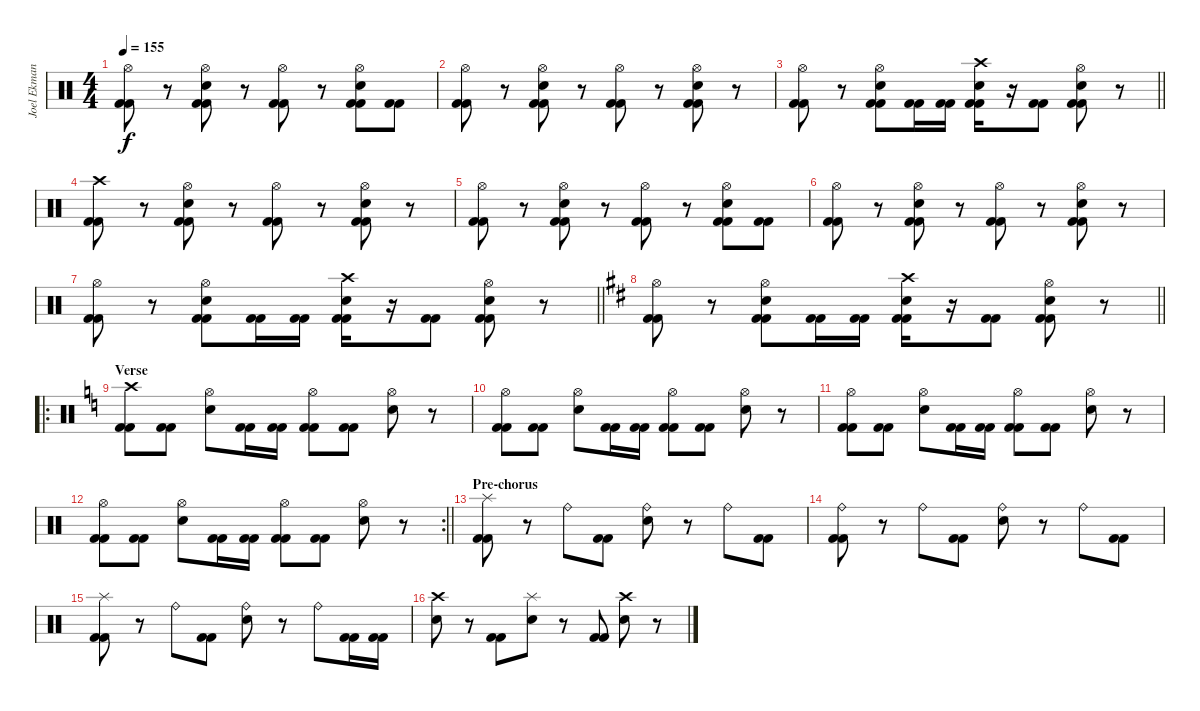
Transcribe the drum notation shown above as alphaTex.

\track ("Joel Ekman-percussion tab" "Joel Ekman") {instrument percussion}
\staff {score}
\articulation defaults
\ts (4 4)
\tempo 155
\clef neutral
\ks c
("Hi-Hat (open)" "Kick (hit) 2" "Kick (hit) 2").8{dy f} r.8 ("Hi-Hat (open)" "Snare (hit) 2" "Kick (hit) 2" "Kick (hit) 2").8 r.8 ("Hi-Hat (open)" "Kick (hit) 2" "Kick (hit) 2").8 r.8 ("Hi-Hat (open)" "Snare (hit) 2" "Kick (hit) 2" "Kick (hit) 2").8 ("Kick (hit) 2" "Kick (hit) 2").8 |
("Hi-Hat (open)" "Kick (hit) 2" "Kick (hit) 2").8 r.8 ("Hi-Hat (open)" "Snare (hit) 2" "Kick (hit) 2" "Kick (hit) 2").8 r.8 ("Hi-Hat (open)" "Kick (hit) 2" "Kick (hit) 2").8 r.8 ("Hi-Hat (open)" "Snare (hit) 2" "Kick (hit) 2" "Kick (hit) 2").8 r.8 |
\barLineRight lightlight
("Hi-Hat (open)" "Kick (hit) 2" "Kick (hit) 2").8 r.8 ("Hi-Hat (open)" "Snare (hit) 2" "Kick (hit) 2" "Kick (hit) 2").8 ("Kick (hit) 2" "Kick (hit) 2").16 ("Kick (hit) 2" "Kick (hit) 2").16 ("Crash high (hit)" "Snare (hit) 2" "Kick (hit) 2" "Kick (hit) 2").16 r.16 ("Kick (hit) 2" "Kick (hit) 2").8 ("Hi-Hat (open)" "Snare (hit) 2" "Kick (hit) 2" "Kick (hit) 2").8 r.8 |
("Crash high (hit)" "Kick (hit) 2" "Kick (hit) 2").8 r.8 ("Hi-Hat (open)" "Snare (hit) 2" "Kick (hit) 2" "Kick (hit) 2").8 r.8 ("Hi-Hat (open)" "Kick (hit) 2" "Kick (hit) 2").8 r.8 ("Hi-Hat (open)" "Snare (hit) 2" "Kick (hit) 2" "Kick (hit) 2").8 r.8 |
("Hi-Hat (open)" "Kick (hit) 2" "Kick (hit) 2").8 r.8 ("Hi-Hat (open)" "Snare (hit) 2" "Kick (hit) 2" "Kick (hit) 2").8 r.8 ("Hi-Hat (open)" "Kick (hit) 2" "Kick (hit) 2").8 r.8 ("Hi-Hat (open)" "Snare (hit) 2" "Kick (hit) 2" "Kick (hit) 2").8 ("Kick (hit) 2" "Kick (hit) 2").8 |
("Hi-Hat (open)" "Kick (hit) 2" "Kick (hit) 2").8 r.8 ("Hi-Hat (open)" "Snare (hit) 2" "Kick (hit) 2" "Kick (hit) 2").8 r.8 ("Hi-Hat (open)" "Kick (hit) 2" "Kick (hit) 2").8 r.8 ("Hi-Hat (open)" "Snare (hit) 2" "Kick (hit) 2" "Kick (hit) 2").8 r.8 |
\barLineRight lightlight
("Hi-Hat (open)" "Kick (hit) 2" "Kick (hit) 2").8 r.8 ("Hi-Hat (open)" "Snare (hit) 2" "Kick (hit) 2" "Kick (hit) 2").8 ("Kick (hit) 2" "Kick (hit) 2").16 ("Kick (hit) 2" "Kick (hit) 2").16 ("Crash high (hit)" "Snare (hit) 2" "Kick (hit) 2" "Kick (hit) 2").16 r.16 ("Kick (hit) 2" "Kick (hit) 2").8 ("Hi-Hat (open)" "Snare (hit) 2" "Kick (hit) 2" "Kick (hit) 2").8 r.8 |
\barLineRight lightlight
\ks d
("Hi-Hat (open)" "Kick (hit) 2" "Kick (hit) 2").8 r.8 ("Hi-Hat (open)" "Snare (hit) 2" "Kick (hit) 2" "Kick (hit) 2").8 ("Kick (hit) 2" "Kick (hit) 2").16 ("Kick (hit) 2" "Kick (hit) 2").16 ("Crash high (hit)" "Snare (hit) 2" "Kick (hit) 2" "Kick (hit) 2").16 r.16 ("Kick (hit) 2" "Kick (hit) 2").8 ("Hi-Hat (open)" "Snare (hit) 2" "Kick (hit) 2" "Kick (hit) 2").8 r.8 |
\ro
\section ("" "Verse")
\ks c
("Crash high (hit)" "Kick (hit) 2" "Kick (hit) 2").8 ("Kick (hit) 2" "Kick (hit) 2").8 ("Hi-Hat (open)" "Snare (hit) 2").8 ("Kick (hit) 2" "Kick (hit) 2").16 ("Kick (hit) 2" "Kick (hit) 2").16 ("Hi-Hat (open)" "Kick (hit) 2" "Kick (hit) 2").8 ("Kick (hit) 2" "Kick (hit) 2").8 ("Hi-Hat (open)" "Snare (hit) 2").8 r.8 |
("Hi-Hat (open)" "Kick (hit) 2" "Kick (hit) 2").8 ("Kick (hit) 2" "Kick (hit) 2").8 ("Hi-Hat (open)" "Snare (hit) 2").8 ("Kick (hit) 2" "Kick (hit) 2").16 ("Kick (hit) 2" "Kick (hit) 2").16 ("Hi-Hat (open)" "Kick (hit) 2" "Kick (hit) 2").8 ("Kick (hit) 2" "Kick (hit) 2").8 ("Hi-Hat (open)" "Snare (hit) 2").8 r.8 |
("Hi-Hat (open)" "Kick (hit) 2" "Kick (hit) 2").8 ("Kick (hit) 2" "Kick (hit) 2").8 ("Hi-Hat (open)" "Snare (hit) 2").8 ("Kick (hit) 2" "Kick (hit) 2").16 ("Kick (hit) 2" "Kick (hit) 2").16 ("Hi-Hat (open)" "Kick (hit) 2" "Kick (hit) 2").8 ("Kick (hit) 2" "Kick (hit) 2").8 ("Hi-Hat (open)" "Snare (hit) 2").8 r.8 |
\rc 2
\barLineRight lightlight
("Hi-Hat (open)" "Kick (hit) 2" "Kick (hit) 2").8 ("Kick (hit) 2" "Kick (hit) 2").8 ("Hi-Hat (open)" "Snare (hit) 2").8 ("Kick (hit) 2" "Kick (hit) 2").16 ("Kick (hit) 2" "Kick (hit) 2").16 ("Hi-Hat (open)" "Kick (hit) 2" "Kick (hit) 2").8 ("Kick (hit) 2" "Kick (hit) 2").8 ("Hi-Hat (open)" "Snare (hit) 2").8 r.8 |
\section ("" "Pre-chorus")
("Splash (hit)" "Kick (hit) 2" "Kick (hit) 2").8 r.8 "Ride (bell)".8 ("Kick (hit) 2" "Kick (hit) 2").8 ("Ride (bell)" "Snare (hit) 2").8 r.8 "Ride (bell)".8 ("Kick (hit) 2" "Kick (hit) 2").8 |
("Ride (bell)" "Kick (hit) 2" "Kick (hit) 2").8 r.8 "Ride (bell)".8 ("Kick (hit) 2" "Kick (hit) 2").8 ("Ride (bell)" "Snare (hit) 2").8 r.8 "Ride (bell)".8 ("Kick (hit) 2" "Kick (hit) 2").8 |
("Splash (hit)" "Kick (hit) 2" "Kick (hit) 2").8 r.8 "Ride (bell)".8 ("Kick (hit) 2" "Kick (hit) 2").8 ("Ride (bell)" "Snare (hit) 2").8 r.8 "Ride (bell)".8 ("Kick (hit) 2" "Kick (hit) 2").16 ("Kick (hit) 2" "Kick (hit) 2").16 |
("Crash high (hit)" "Snare (hit) 2").8 r.8 ("Kick (hit) 2" "Kick (hit) 2").8 ("Splash (hit)" "Snare (hit) 2").8 r.8 ("Kick (hit) 2" "Kick (hit) 2").8 ("Crash high (hit)" "Snare (hit) 2").8 r.8
